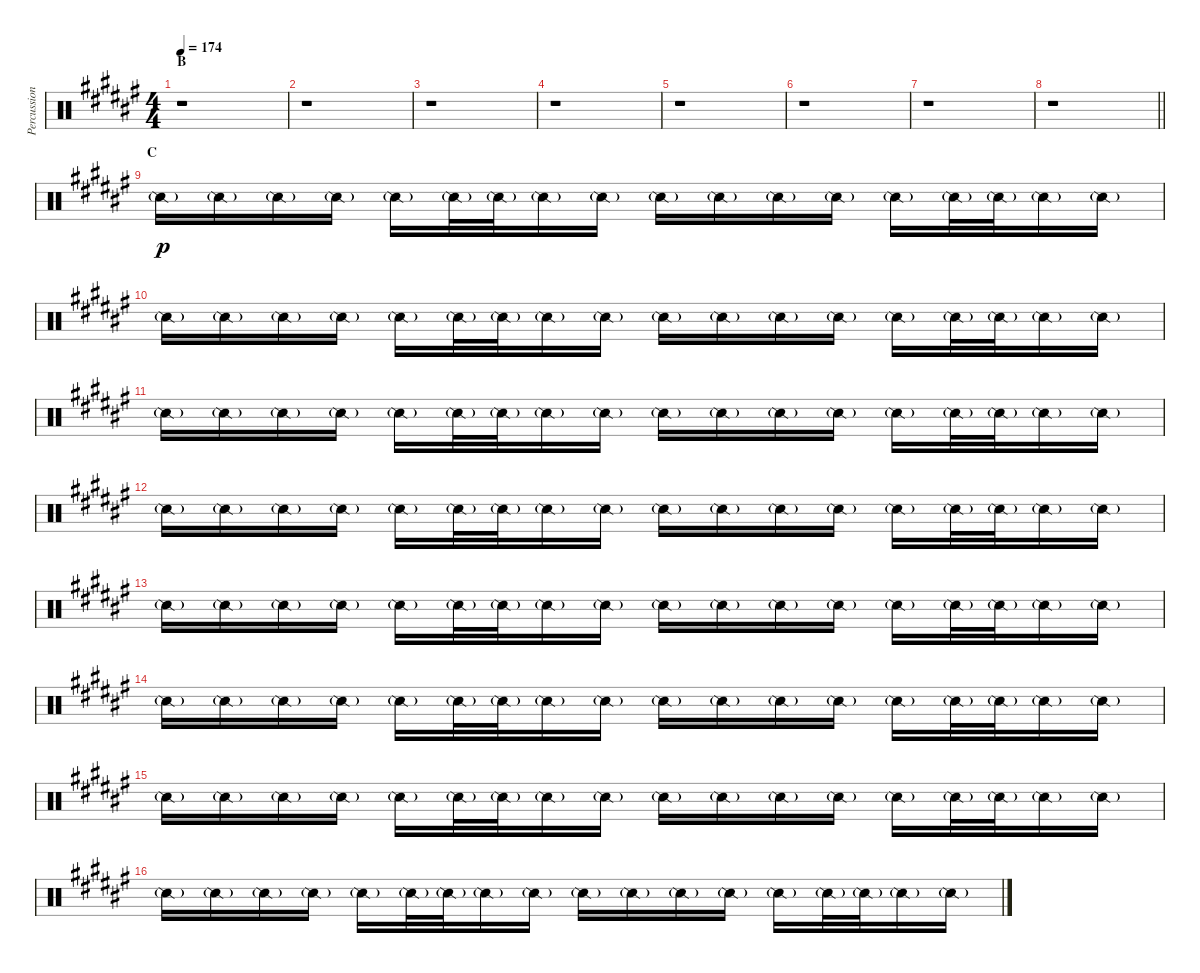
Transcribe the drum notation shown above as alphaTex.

\track ("Percussion I" "Percussion") {instrument percussion}
\staff {score}
\articulation defaults
\ts (4 4)
\section ("" "B")
\tempo 174
\clef neutral
\ks f#
r.1{dy p} |
r.1 |
r.1 |
r.1 |
r.1 |
r.1 |
r.1 |
\barLineRight lightlight
r.1 |
\section ("" "C")
"Snare (side stick) 2"{g}.16 "Snare (side stick) 2"{g}.16 "Snare (side stick) 2"{g}.16 "Snare (side stick) 2"{g}.16 "Snare (side stick) 2"{g}.16 "Snare (side stick) 2"{g}.32 "Snare (side stick) 2"{g}.32 "Snare (side stick) 2"{g}.16 "Snare (side stick) 2"{g}.16 "Snare (side stick) 2"{g}.16 "Snare (side stick) 2"{g}.16 "Snare (side stick) 2"{g}.16 "Snare (side stick) 2"{g}.16 "Snare (side stick) 2"{g}.16 "Snare (side stick) 2"{g}.32 "Snare (side stick) 2"{g}.32 "Snare (side stick) 2"{g}.16 "Snare (side stick) 2"{g}.16 |
"Snare (side stick) 2"{g}.16 "Snare (side stick) 2"{g}.16 "Snare (side stick) 2"{g}.16 "Snare (side stick) 2"{g}.16 "Snare (side stick) 2"{g}.16 "Snare (side stick) 2"{g}.32 "Snare (side stick) 2"{g}.32 "Snare (side stick) 2"{g}.16 "Snare (side stick) 2"{g}.16 "Snare (side stick) 2"{g}.16 "Snare (side stick) 2"{g}.16 "Snare (side stick) 2"{g}.16 "Snare (side stick) 2"{g}.16 "Snare (side stick) 2"{g}.16 "Snare (side stick) 2"{g}.32 "Snare (side stick) 2"{g}.32 "Snare (side stick) 2"{g}.16 "Snare (side stick) 2"{g}.16 |
"Snare (side stick) 2"{g}.16 "Snare (side stick) 2"{g}.16 "Snare (side stick) 2"{g}.16 "Snare (side stick) 2"{g}.16 "Snare (side stick) 2"{g}.16 "Snare (side stick) 2"{g}.32 "Snare (side stick) 2"{g}.32 "Snare (side stick) 2"{g}.16 "Snare (side stick) 2"{g}.16 "Snare (side stick) 2"{g}.16 "Snare (side stick) 2"{g}.16 "Snare (side stick) 2"{g}.16 "Snare (side stick) 2"{g}.16 "Snare (side stick) 2"{g}.16 "Snare (side stick) 2"{g}.32 "Snare (side stick) 2"{g}.32 "Snare (side stick) 2"{g}.16 "Snare (side stick) 2"{g}.16 |
"Snare (side stick) 2"{g}.16 "Snare (side stick) 2"{g}.16 "Snare (side stick) 2"{g}.16 "Snare (side stick) 2"{g}.16 "Snare (side stick) 2"{g}.16 "Snare (side stick) 2"{g}.32 "Snare (side stick) 2"{g}.32 "Snare (side stick) 2"{g}.16 "Snare (side stick) 2"{g}.16 "Snare (side stick) 2"{g}.16 "Snare (side stick) 2"{g}.16 "Snare (side stick) 2"{g}.16 "Snare (side stick) 2"{g}.16 "Snare (side stick) 2"{g}.16 "Snare (side stick) 2"{g}.32 "Snare (side stick) 2"{g}.32 "Snare (side stick) 2"{g}.16 "Snare (side stick) 2"{g}.16 |
"Snare (side stick) 2"{g}.16 "Snare (side stick) 2"{g}.16 "Snare (side stick) 2"{g}.16 "Snare (side stick) 2"{g}.16 "Snare (side stick) 2"{g}.16 "Snare (side stick) 2"{g}.32 "Snare (side stick) 2"{g}.32 "Snare (side stick) 2"{g}.16 "Snare (side stick) 2"{g}.16 "Snare (side stick) 2"{g}.16 "Snare (side stick) 2"{g}.16 "Snare (side stick) 2"{g}.16 "Snare (side stick) 2"{g}.16 "Snare (side stick) 2"{g}.16 "Snare (side stick) 2"{g}.32 "Snare (side stick) 2"{g}.32 "Snare (side stick) 2"{g}.16 "Snare (side stick) 2"{g}.16 |
"Snare (side stick) 2"{g}.16 "Snare (side stick) 2"{g}.16 "Snare (side stick) 2"{g}.16 "Snare (side stick) 2"{g}.16 "Snare (side stick) 2"{g}.16 "Snare (side stick) 2"{g}.32 "Snare (side stick) 2"{g}.32 "Snare (side stick) 2"{g}.16 "Snare (side stick) 2"{g}.16 "Snare (side stick) 2"{g}.16 "Snare (side stick) 2"{g}.16 "Snare (side stick) 2"{g}.16 "Snare (side stick) 2"{g}.16 "Snare (side stick) 2"{g}.16 "Snare (side stick) 2"{g}.32 "Snare (side stick) 2"{g}.32 "Snare (side stick) 2"{g}.16 "Snare (side stick) 2"{g}.16 |
"Snare (side stick) 2"{g}.16 "Snare (side stick) 2"{g}.16 "Snare (side stick) 2"{g}.16 "Snare (side stick) 2"{g}.16 "Snare (side stick) 2"{g}.16 "Snare (side stick) 2"{g}.32 "Snare (side stick) 2"{g}.32 "Snare (side stick) 2"{g}.16 "Snare (side stick) 2"{g}.16 "Snare (side stick) 2"{g}.16 "Snare (side stick) 2"{g}.16 "Snare (side stick) 2"{g}.16 "Snare (side stick) 2"{g}.16 "Snare (side stick) 2"{g}.16 "Snare (side stick) 2"{g}.32 "Snare (side stick) 2"{g}.32 "Snare (side stick) 2"{g}.16 "Snare (side stick) 2"{g}.16 |
"Snare (side stick) 2"{g}.16 "Snare (side stick) 2"{g}.16 "Snare (side stick) 2"{g}.16 "Snare (side stick) 2"{g}.16 "Snare (side stick) 2"{g}.16 "Snare (side stick) 2"{g}.32 "Snare (side stick) 2"{g}.32 "Snare (side stick) 2"{g}.16 "Snare (side stick) 2"{g}.16 "Snare (side stick) 2"{g}.16 "Snare (side stick) 2"{g}.16 "Snare (side stick) 2"{g}.16 "Snare (side stick) 2"{g}.16 "Snare (side stick) 2"{g}.16 "Snare (side stick) 2"{g}.32 "Snare (side stick) 2"{g}.32 "Snare (side stick) 2"{g}.16 "Snare (side stick) 2"{g}.16
